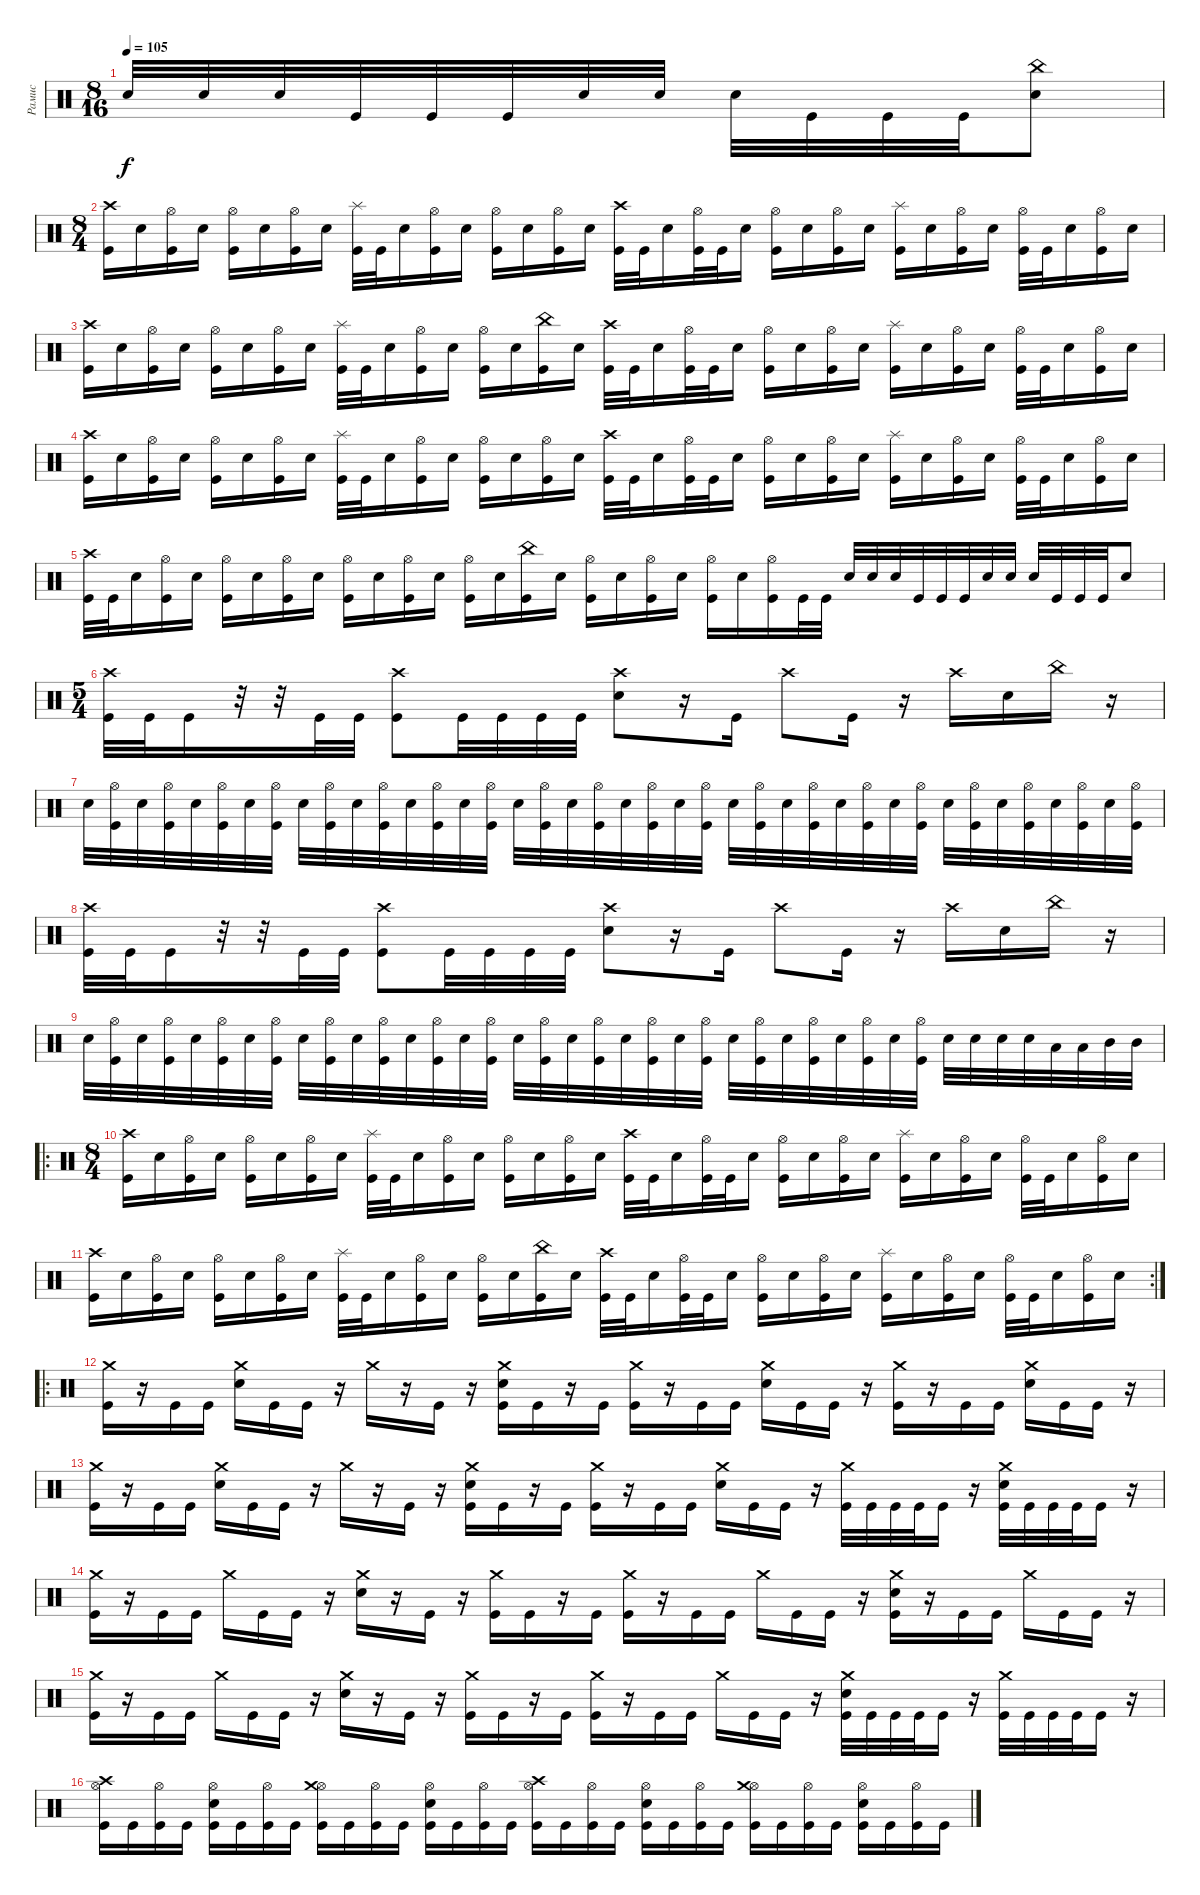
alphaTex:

\track ("Рамис" "Рамис") {instrument percussion}
\staff {score}
\articulation defaults
\ts (8 16)
\tempo 105
\clef neutral
\ks c "Electric Snare (hit)".32{dy f} "Electric Snare (hit)".32 "Electric Snare (hit)".32 "Kick (hit)".32 "Kick (hit)".32 "Kick (hit)".32 "Electric Snare (hit)".32 "Electric Snare (hit)".32 "Electric Snare (hit)".32 "Kick (hit)".32 "Kick (hit)".32 "Kick (hit)".32
("China (hit)" "Electric Snare (hit)").8 |
\ts (8 4)
("Crash high (hit)" "Kick (hit)").16 "Electric Snare (hit)".16 ("Hi-Hat (open)" "Kick (hit)").16 "Electric Snare (hit)".16 ("Hi-Hat (open)" "Kick (hit)").16 "Electric Snare (hit)".16 ("Hi-Hat (open)" "Kick (hit)").16 "Electric Snare (hit)".16 ("Splash (hit)" "Kick (hit)").32 "Kick (hit)".32 "Electric Snare (hit)".16 ("Hi-Hat (open)" "Kick (hit)").16 "Electric Snare (hit)".16 ("Hi-Hat (open)" "Kick (hit)").16 "Electric Snare (hit)".16 ("Hi-Hat (open)" "Kick (hit)").16 "Electric Snare (hit)".16 ("Crash high (hit)" "Kick (hit)").32 "Kick (hit)".32 "Electric Snare (hit)".16 ("Hi-Hat (open)" "Kick (hit)").32 "Kick (hit)".32 "Electric Snare (hit)".16 ("Hi-Hat (open)" "Kick (hit)").16 "Electric Snare (hit)".16 ("Hi-Hat (open)" "Kick (hit)").16 "Electric Snare (hit)".16 ("Splash (hit)" "Kick (hit)").16 "Electric Snare (hit)".16 ("Hi-Hat (open)" "Kick (hit)").16 "Electric Snare (hit)".16 ("Hi-Hat (open)" "Kick (hit)").32 "Kick (hit)".32 "Electric Snare (hit)".16 ("Hi-Hat (open)" "Kick (hit)").16 "Electric Snare (hit)".16 |
("Crash high (hit)" "Kick (hit)").16 "Electric Snare (hit)".16 ("Hi-Hat (open)" "Kick (hit)").16 "Electric Snare (hit)".16 ("Hi-Hat (open)" "Kick (hit)").16 "Electric Snare (hit)".16 ("Hi-Hat (open)" "Kick (hit)").16 "Electric Snare (hit)".16 ("Splash (hit)" "Kick (hit)").32 "Kick (hit)".32 "Electric Snare (hit)".16 ("Hi-Hat (open)" "Kick (hit)").16 "Electric Snare (hit)".16 ("Hi-Hat (open)" "Kick (hit)").16 "Electric Snare (hit)".16 ("China (hit)" "Kick (hit)").16 "Electric Snare (hit)".16 ("Crash high (hit)" "Kick (hit)").32 "Kick (hit)".32 "Electric Snare (hit)".16 ("Hi-Hat (open)" "Kick (hit)").32 "Kick (hit)".32 "Electric Snare (hit)".16 ("Hi-Hat (open)" "Kick (hit)").16 "Electric Snare (hit)".16 ("Hi-Hat (open)" "Kick (hit)").16 "Electric Snare (hit)".16 ("Splash (hit)" "Kick (hit)").16 "Electric Snare (hit)".16 ("Hi-Hat (open)" "Kick (hit)").16 "Electric Snare (hit)".16 ("Hi-Hat (open)" "Kick (hit)").32 "Kick (hit)".32 "Electric Snare (hit)".16 ("Hi-Hat (open)" "Kick (hit)").16 "Electric Snare (hit)".16 |
("Crash high (hit)" "Kick (hit)").16 "Electric Snare (hit)".16 ("Hi-Hat (open)" "Kick (hit)").16 "Electric Snare (hit)".16 ("Hi-Hat (open)" "Kick (hit)").16 "Electric Snare (hit)".16 ("Hi-Hat (open)" "Kick (hit)").16 "Electric Snare (hit)".16 ("Splash (hit)" "Kick (hit)").32 "Kick (hit)".32 "Electric Snare (hit)".16 ("Hi-Hat (open)" "Kick (hit)").16 "Electric Snare (hit)".16 ("Hi-Hat (open)" "Kick (hit)").16 "Electric Snare (hit)".16 ("Hi-Hat (open)" "Kick (hit)").16 "Electric Snare (hit)".16 ("Crash high (hit)" "Kick (hit)").32 "Kick (hit)".32 "Electric Snare (hit)".16 ("Hi-Hat (open)" "Kick (hit)").32 "Kick (hit)".32 "Electric Snare (hit)".16 ("Hi-Hat (open)" "Kick (hit)").16 "Electric Snare (hit)".16 ("Hi-Hat (open)" "Kick (hit)").16 "Electric Snare (hit)".16 ("Splash (hit)" "Kick (hit)").16 "Electric Snare (hit)".16 ("Hi-Hat (open)" "Kick (hit)").16 "Electric Snare (hit)".16 ("Hi-Hat (open)" "Kick (hit)").32 "Kick (hit)".32 "Electric Snare (hit)".16 ("Hi-Hat (open)" "Kick (hit)").16 "Electric Snare (hit)".16 |
("Crash high (hit)" "Kick (hit)").32 "Kick (hit)".32 "Electric Snare (hit)".16 ("Hi-Hat (open)" "Kick (hit)").16 "Electric Snare (hit)".16 ("Hi-Hat (open)" "Kick (hit)").16 "Electric Snare (hit)".16 ("Hi-Hat (open)" "Kick (hit)").16 "Electric Snare (hit)".16 ("Hi-Hat (open)" "Kick (hit)").16 "Electric Snare (hit)".16 ("Hi-Hat (open)" "Kick (hit)").16 "Electric Snare (hit)".16 ("Hi-Hat (open)" "Kick (hit)").16 "Electric Snare (hit)".16 ("China (hit)" "Kick (hit)").16 "Electric Snare (hit)".16 ("Hi-Hat (open)" "Kick (hit)").16 "Electric Snare (hit)".16 ("Hi-Hat (open)" "Kick (hit)").16 "Electric Snare (hit)".16 ("Hi-Hat (open)" "Kick (hit)").16 "Electric Snare (hit)".16 ("Hi-Hat (open)" "Kick (hit)").16 "Kick (hit)".32 "Kick (hit)".32 "Electric Snare (hit)".32 "Electric Snare (hit)".32 "Electric Snare (hit)".32 "Kick (hit)".32 "Kick (hit)".32 "Kick (hit)".32 "Electric Snare (hit)".32 "Electric Snare (hit)".32 "Electric Snare (hit)".32 "Kick (hit)".32 "Kick (hit)".32 "Kick (hit)".32 "Electric Snare (hit)".8 |
\ts (5 4)
("Crash high (hit)" "Kick (hit)").32 "Kick (hit)".32 "Kick (hit)".16 r.32 r.32 "Kick (hit)".32 "Kick (hit)".32 ("Crash high (hit)" "Kick (hit)").8 "Kick (hit)".32 "Kick (hit)".32 "Kick (hit)".32 "Kick (hit)".32 ("Crash high (hit)" "Electric Snare (hit)").8 r.16 "Kick (hit)".16 "Crash high (hit)".8 "Kick (hit)".16 r.16 "Crash high (hit)".16 "Electric Snare (hit)".16 "China (hit)".16 r.16 |
"Electric Snare (hit)".32 ("Hi-Hat (open)" "Kick (hit)").32 "Electric Snare (hit)".32 ("Hi-Hat (open)" "Kick (hit)").32 "Electric Snare (hit)".32 ("Hi-Hat (open)" "Kick (hit)").32 "Electric Snare (hit)".32 ("Hi-Hat (open)" "Kick (hit)").32 "Electric Snare (hit)".32 ("Hi-Hat (open)" "Kick (hit)").32 "Electric Snare (hit)".32 ("Hi-Hat (open)" "Kick (hit)").32 "Electric Snare (hit)".32 ("Hi-Hat (open)" "Kick (hit)").32 "Electric Snare (hit)".32 ("Hi-Hat (open)" "Kick (hit)").32 "Electric Snare (hit)".32 ("Hi-Hat (open)" "Kick (hit)").32 "Electric Snare (hit)".32 ("Hi-Hat (open)" "Kick (hit)").32 "Electric Snare (hit)".32 ("Hi-Hat (open)" "Kick (hit)").32 "Electric Snare (hit)".32 ("Hi-Hat (open)" "Kick (hit)").32 "Electric Snare (hit)".32 ("Hi-Hat (open)" "Kick (hit)").32 "Electric Snare (hit)".32 ("Hi-Hat (open)" "Kick (hit)").32 "Electric Snare (hit)".32 ("Hi-Hat (open)" "Kick (hit)").32 "Electric Snare (hit)".32 ("Hi-Hat (open)" "Kick (hit)").32 "Electric Snare (hit)".32 ("Hi-Hat (open)" "Kick (hit)").32 "Electric Snare (hit)".32 ("Hi-Hat (open)" "Kick (hit)").32 "Electric Snare (hit)".32 ("Hi-Hat (open)" "Kick (hit)").32 "Electric Snare (hit)".32 ("Hi-Hat (open)" "Kick (hit)").32 |
("Crash high (hit)" "Kick (hit)").32 "Kick (hit)".32 "Kick (hit)".16 r.32 r.32 "Kick (hit)".32 "Kick (hit)".32 ("Crash high (hit)" "Kick (hit)").8 "Kick (hit)".32 "Kick (hit)".32 "Kick (hit)".32 "Kick (hit)".32 ("Crash high (hit)" "Electric Snare (hit)").8 r.16 "Kick (hit)".16 "Crash high (hit)".8 "Kick (hit)".16 r.16 "Crash high (hit)".16 "Electric Snare (hit)".16 "China (hit)".16 r.16 |
"Electric Snare (hit)".32 ("Hi-Hat (open)" "Kick (hit)").32 "Electric Snare (hit)".32 ("Hi-Hat (open)" "Kick (hit)").32 "Electric Snare (hit)".32 ("Hi-Hat (open)" "Kick (hit)").32 "Electric Snare (hit)".32 ("Hi-Hat (open)" "Kick (hit)").32 "Electric Snare (hit)".32 ("Hi-Hat (open)" "Kick (hit)").32 "Electric Snare (hit)".32 ("Hi-Hat (open)" "Kick (hit)").32 "Electric Snare (hit)".32 ("Hi-Hat (open)" "Kick (hit)").32 "Electric Snare (hit)".32 ("Hi-Hat (open)" "Kick (hit)").32 "Electric Snare (hit)".32 ("Hi-Hat (open)" "Kick (hit)").32 "Electric Snare (hit)".32 ("Hi-Hat (open)" "Kick (hit)").32 "Electric Snare (hit)".32 ("Hi-Hat (open)" "Kick (hit)").32 "Electric Snare (hit)".32 ("Hi-Hat (open)" "Kick (hit)").32 "Electric Snare (hit)".32 ("Hi-Hat (open)" "Kick (hit)").32 "Electric Snare (hit)".32 ("Hi-Hat (open)" "Kick (hit)").32 "Electric Snare (hit)".32 ("Hi-Hat (open)" "Kick (hit)").32 "Electric Snare (hit)".32 ("Hi-Hat (open)" "Kick (hit)").32 "Electric Snare (hit)".32 "Electric Snare (hit)".32 "Electric Snare (hit)".32 "Electric Snare (hit)".32 "Low Tom (hit)".32 "Low Tom (hit)".32 "Mid Tom (hit)".32 "Mid Tom (hit)".32 |
\ro
\ts (8 4)
("Crash high (hit)" "Kick (hit)").16 "Electric Snare (hit)".16 ("Hi-Hat (open)" "Kick (hit)").16 "Electric Snare (hit)".16 ("Hi-Hat (open)" "Kick (hit)").16 "Electric Snare (hit)".16 ("Hi-Hat (open)" "Kick (hit)").16 "Electric Snare (hit)".16 ("Splash (hit)" "Kick (hit)").32 "Kick (hit)".32 "Electric Snare (hit)".16 ("Hi-Hat (open)" "Kick (hit)").16 "Electric Snare (hit)".16 ("Hi-Hat (open)" "Kick (hit)").16 "Electric Snare (hit)".16 ("Hi-Hat (open)" "Kick (hit)").16 "Electric Snare (hit)".16 ("Crash high (hit)" "Kick (hit)").32 "Kick (hit)".32 "Electric Snare (hit)".16 ("Hi-Hat (open)" "Kick (hit)").32 "Kick (hit)".32 "Electric Snare (hit)".16 ("Hi-Hat (open)" "Kick (hit)").16 "Electric Snare (hit)".16 ("Hi-Hat (open)" "Kick (hit)").16 "Electric Snare (hit)".16 ("Splash (hit)" "Kick (hit)").16 "Electric Snare (hit)".16 ("Hi-Hat (open)" "Kick (hit)").16 "Electric Snare (hit)".16 ("Hi-Hat (open)" "Kick (hit)").32 "Kick (hit)".32 "Electric Snare (hit)".16 ("Hi-Hat (open)" "Kick (hit)").16 "Electric Snare (hit)".16 |
\rc 2
("Crash high (hit)" "Kick (hit)").16 "Electric Snare (hit)".16 ("Hi-Hat (open)" "Kick (hit)").16 "Electric Snare (hit)".16 ("Hi-Hat (open)" "Kick (hit)").16 "Electric Snare (hit)".16 ("Hi-Hat (open)" "Kick (hit)").16 "Electric Snare (hit)".16 ("Splash (hit)" "Kick (hit)").32 "Kick (hit)".32 "Electric Snare (hit)".16 ("Hi-Hat (open)" "Kick (hit)").16 "Electric Snare (hit)".16 ("Hi-Hat (open)" "Kick (hit)").16 "Electric Snare (hit)".16 ("China (hit)" "Kick (hit)").16 "Electric Snare (hit)".16 ("Crash high (hit)" "Kick (hit)").32 "Kick (hit)".32 "Electric Snare (hit)".16 ("Hi-Hat (open)" "Kick (hit)").32 "Kick (hit)".32 "Electric Snare (hit)".16 ("Hi-Hat (open)" "Kick (hit)").16 "Electric Snare (hit)".16 ("Hi-Hat (open)" "Kick (hit)").16 "Electric Snare (hit)".16 ("Splash (hit)" "Kick (hit)").16 "Electric Snare (hit)".16 ("Hi-Hat (open)" "Kick (hit)").16 "Electric Snare (hit)".16 ("Hi-Hat (open)" "Kick (hit)").32 "Kick (hit)".32 "Electric Snare (hit)".16 ("Hi-Hat (open)" "Kick (hit)").16 "Electric Snare (hit)".16 |
\ro
("Crash medium (hit)" "Kick (hit)").16 r.16 "Kick (hit)".16 "Kick (hit)".16 ("Crash medium (hit)" "Electric Snare (hit)").16 "Kick (hit)".16 "Kick (hit)".16 r.16 "Crash medium (hit)".16 r.16 "Kick (hit)".16 r.16 ("Crash medium (hit)" "Electric Snare (hit)" "Kick (hit)").16 "Kick (hit)".16 r.16 "Kick (hit)".16 ("Crash medium (hit)" "Kick (hit)").16 r.16 "Kick (hit)".16 "Kick (hit)".16 ("Crash medium (hit)" "Electric Snare (hit)").16 "Kick (hit)".16 "Kick (hit)".16 r.16 ("Crash medium (hit)" "Kick (hit)").16 r.16 "Kick (hit)".16 "Kick (hit)".16 ("Crash medium (hit)" "Electric Snare (hit)").16 "Kick (hit)".16 "Kick (hit)".16 r.16 |
("Crash medium (hit)" "Kick (hit)").16 r.16 "Kick (hit)".16 "Kick (hit)".16 ("Crash medium (hit)" "Electric Snare (hit)").16 "Kick (hit)".16 "Kick (hit)".16 r.16 "Crash medium (hit)".16 r.16 "Kick (hit)".16 r.16 ("Crash medium (hit)" "Electric Snare (hit)" "Kick (hit)").16 "Kick (hit)".16 r.16 "Kick (hit)".16 ("Crash medium (hit)" "Kick (hit)").16 r.16 "Kick (hit)".16 "Kick (hit)".16 ("Crash medium (hit)" "Electric Snare (hit)").16 "Kick (hit)".16 "Kick (hit)".16 r.16 ("Crash medium (hit)" "Kick (hit)").32 "Kick (hit)".32 "Kick (hit)".32 "Kick (hit)".32 "Kick (hit)".16 r.16 ("Crash medium (hit)" "Electric Snare (hit)" "Kick (hit)").32 "Kick (hit)".32 "Kick (hit)".32 "Kick (hit)".32 "Kick (hit)".16 r.16 |
("Crash medium (hit)" "Kick (hit)").16 r.16 "Kick (hit)".16 "Kick (hit)".16 "Crash medium (hit)".16 "Kick (hit)".16 "Kick (hit)".16 r.16 ("Crash medium (hit)" "Electric Snare (hit)").16 r.16 "Kick (hit)".16 r.16 ("Crash medium (hit)" "Kick (hit)").16 "Kick (hit)".16 r.16 "Kick (hit)".16 ("Crash medium (hit)" "Kick (hit)").16 r.16 "Kick (hit)".16 "Kick (hit)".16 "Crash medium (hit)".16 "Kick (hit)".16 "Kick (hit)".16 r.16 ("Crash medium (hit)" "Electric Snare (hit)" "Kick (hit)").16 r.16 "Kick (hit)".16 "Kick (hit)".16 "Crash medium (hit)".16 "Kick (hit)".16 "Kick (hit)".16 r.16 |
("Crash medium (hit)" "Kick (hit)").16 r.16 "Kick (hit)".16 "Kick (hit)".16 "Crash medium (hit)".16 "Kick (hit)".16 "Kick (hit)".16 r.16 ("Crash medium (hit)" "Electric Snare (hit)").16 r.16 "Kick (hit)".16 r.16 ("Crash medium (hit)" "Kick (hit)").16 "Kick (hit)".16 r.16 "Kick (hit)".16 ("Crash medium (hit)" "Kick (hit)").16 r.16 "Kick (hit)".16 "Kick (hit)".16 "Crash medium (hit)".16 "Kick (hit)".16 "Kick (hit)".16 r.16 ("Crash medium (hit)" "Electric Snare (hit)" "Kick (hit)").32 "Kick (hit)".32 "Kick (hit)".32 "Kick (hit)".32 "Kick (hit)".16 r.16 ("Crash medium (hit)" "Kick (hit)").32 "Kick (hit)".32 "Kick (hit)".32 "Kick (hit)".32 "Kick (hit)".16 r.16 |
("Hi-Hat (open)" "Crash high (hit)" "Kick (hit)").16 "Kick (hit)".16 ("Hi-Hat (open)" "Kick (hit)").16 "Kick (hit)".16 ("Hi-Hat (open)" "Electric Snare (hit)" "Kick (hit)").16 "Kick (hit)".16 ("Hi-Hat (open)" "Kick (hit)").16 "Kick (hit)".16 ("Hi-Hat (open)" "Crash medium (hit)" "Kick (hit)").16 "Kick (hit)".16 ("Hi-Hat (open)" "Kick (hit)").16 "Kick (hit)".16 ("Hi-Hat (open)" "Electric Snare (hit)" "Kick (hit)").16 "Kick (hit)".16 ("Hi-Hat (open)" "Kick (hit)").16 "Kick (hit)".16 ("Hi-Hat (open)" "Crash high (hit)" "Kick (hit)").16 "Kick (hit)".16 ("Hi-Hat (open)" "Kick (hit)").16 "Kick (hit)".16 ("Hi-Hat (open)" "Electric Snare (hit)" "Kick (hit)").16 "Kick (hit)".16 ("Hi-Hat (open)" "Kick (hit)").16 "Kick (hit)".16 ("Hi-Hat (open)" "Crash medium (hit)" "Kick (hit)").16 "Kick (hit)".16 ("Hi-Hat (open)" "Kick (hit)").16 "Kick (hit)".16 ("Hi-Hat (open)" "Electric Snare (hit)" "Kick (hit)").16 "Kick (hit)".16 ("Hi-Hat (open)" "Kick (hit)").16 "Kick (hit)".16
